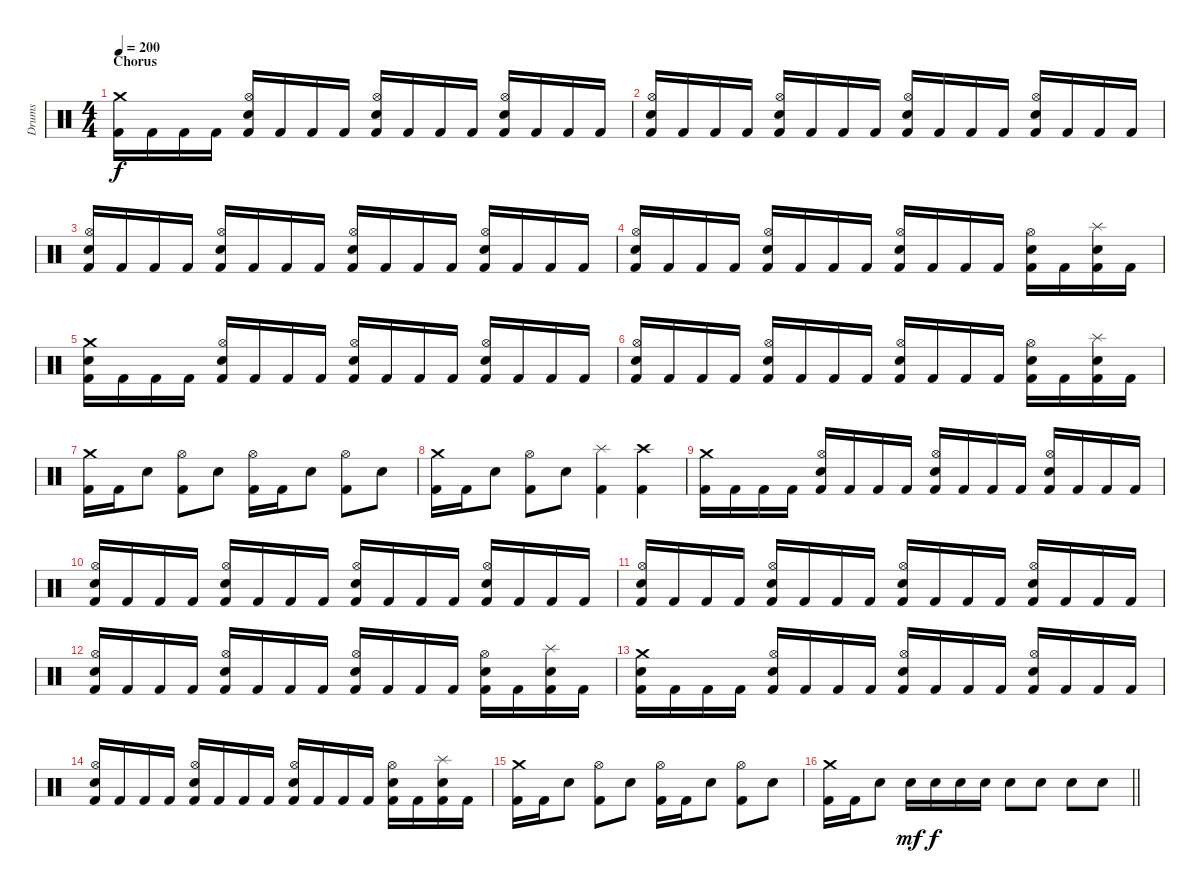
\track ("Drums" "Drums") {instrument percussion}
\staff {score}
\articulation defaults
\ts (4 4)
\section ("" "Chorus")
\tempo 200
\clef neutral
\ks c
("Crash medium (hit)" "Kick (hit) 2").16{dy f} "Kick (hit) 2".16 "Kick (hit) 2".16 "Kick (hit) 2".16 ("Hi-Hat (open)" "Electric Snare (hit)" "Kick (hit) 2").16 "Kick (hit) 2".16 "Kick (hit) 2".16 "Kick (hit) 2".16 ("Hi-Hat (open)" "Electric Snare (hit)" "Kick (hit) 2").16 "Kick (hit) 2".16 "Kick (hit) 2".16 "Kick (hit) 2".16 ("Hi-Hat (open)" "Electric Snare (hit)" "Kick (hit) 2").16 "Kick (hit) 2".16 "Kick (hit) 2".16 "Kick (hit) 2".16 |
("Hi-Hat (open)" "Electric Snare (hit)" "Kick (hit) 2").16 "Kick (hit) 2".16 "Kick (hit) 2".16 "Kick (hit) 2".16 ("Hi-Hat (open)" "Electric Snare (hit)" "Kick (hit) 2").16 "Kick (hit) 2".16 "Kick (hit) 2".16 "Kick (hit) 2".16 ("Hi-Hat (open)" "Electric Snare (hit)" "Kick (hit) 2").16 "Kick (hit) 2".16 "Kick (hit) 2".16 "Kick (hit) 2".16 ("Hi-Hat (open)" "Electric Snare (hit)" "Kick (hit) 2").16 "Kick (hit) 2".16 "Kick (hit) 2".16 "Kick (hit) 2".16 |
("Hi-Hat (open)" "Electric Snare (hit)" "Kick (hit) 2").16 "Kick (hit) 2".16 "Kick (hit) 2".16 "Kick (hit) 2".16 ("Hi-Hat (open)" "Electric Snare (hit)" "Kick (hit) 2").16 "Kick (hit) 2".16 "Kick (hit) 2".16 "Kick (hit) 2".16 ("Hi-Hat (open)" "Electric Snare (hit)" "Kick (hit) 2").16 "Kick (hit) 2".16 "Kick (hit) 2".16 "Kick (hit) 2".16 ("Hi-Hat (open)" "Electric Snare (hit)" "Kick (hit) 2").16 "Kick (hit) 2".16 "Kick (hit) 2".16 "Kick (hit) 2".16 |
("Hi-Hat (open)" "Electric Snare (hit)" "Kick (hit) 2").16 "Kick (hit) 2".16 "Kick (hit) 2".16 "Kick (hit) 2".16 ("Hi-Hat (open)" "Electric Snare (hit)" "Kick (hit) 2").16 "Kick (hit) 2".16 "Kick (hit) 2".16 "Kick (hit) 2".16 ("Hi-Hat (open)" "Electric Snare (hit)" "Kick (hit) 2").16 "Kick (hit) 2".16 "Kick (hit) 2".16 "Kick (hit) 2".16 ("Hi-Hat (open)" "Electric Snare (hit)" "Kick (hit) 2").16 "Kick (hit) 2".16 ("Splash (hit)" "Electric Snare (hit)" "Kick (hit) 2").16 "Kick (hit) 2".16 |
("Crash medium (hit)" "Electric Snare (hit)" "Kick (hit) 2").16 "Kick (hit) 2".16 "Kick (hit) 2".16 "Kick (hit) 2".16 ("Hi-Hat (open)" "Electric Snare (hit)" "Kick (hit) 2").16 "Kick (hit) 2".16 "Kick (hit) 2".16 "Kick (hit) 2".16 ("Hi-Hat (open)" "Electric Snare (hit)" "Kick (hit) 2").16 "Kick (hit) 2".16 "Kick (hit) 2".16 "Kick (hit) 2".16 ("Hi-Hat (open)" "Electric Snare (hit)" "Kick (hit) 2").16 "Kick (hit) 2".16 "Kick (hit) 2".16 "Kick (hit) 2".16 |
("Hi-Hat (open)" "Electric Snare (hit)" "Kick (hit) 2").16 "Kick (hit) 2".16 "Kick (hit) 2".16 "Kick (hit) 2".16 ("Hi-Hat (open)" "Electric Snare (hit)" "Kick (hit) 2").16 "Kick (hit) 2".16 "Kick (hit) 2".16 "Kick (hit) 2".16 ("Hi-Hat (open)" "Electric Snare (hit)" "Kick (hit) 2").16 "Kick (hit) 2".16 "Kick (hit) 2".16 "Kick (hit) 2".16 ("Hi-Hat (open)" "Electric Snare (hit)" "Kick (hit) 2").16 "Kick (hit) 2".16 ("Splash (hit)" "Electric Snare (hit)" "Kick (hit) 2").16 "Kick (hit) 2".16 |
("Crash medium (hit)" "Kick (hit) 2").16 "Kick (hit) 2".16 "Electric Snare (hit)".8 ("Hi-Hat (open)" "Kick (hit) 2").8 "Electric Snare (hit)".8 ("Hi-Hat (open)" "Kick (hit) 2").16 "Kick (hit) 2".16 "Electric Snare (hit)".8 ("Hi-Hat (open)" "Kick (hit) 2").8 "Electric Snare (hit)".8 |
("Crash medium (hit)" "Kick (hit) 2").16 "Kick (hit) 2".16 "Electric Snare (hit)".8 ("Hi-Hat (open)" "Kick (hit) 2").8 "Electric Snare (hit)".8 ("Splash (hit)" "Kick (hit) 2").4 ("Crash high (hit)" "Kick (hit) 2").4 |
("Crash medium (hit)" "Kick (hit) 2").16 "Kick (hit) 2".16 "Kick (hit) 2".16 "Kick (hit) 2".16 ("Hi-Hat (open)" "Electric Snare (hit)" "Kick (hit) 2").16 "Kick (hit) 2".16 "Kick (hit) 2".16 "Kick (hit) 2".16 ("Hi-Hat (open)" "Electric Snare (hit)" "Kick (hit) 2").16 "Kick (hit) 2".16 "Kick (hit) 2".16 "Kick (hit) 2".16 ("Hi-Hat (open)" "Electric Snare (hit)" "Kick (hit) 2").16 "Kick (hit) 2".16 "Kick (hit) 2".16 "Kick (hit) 2".16 |
("Hi-Hat (open)" "Electric Snare (hit)" "Kick (hit) 2").16 "Kick (hit) 2".16 "Kick (hit) 2".16 "Kick (hit) 2".16 ("Hi-Hat (open)" "Electric Snare (hit)" "Kick (hit) 2").16 "Kick (hit) 2".16 "Kick (hit) 2".16 "Kick (hit) 2".16 ("Hi-Hat (open)" "Electric Snare (hit)" "Kick (hit) 2").16 "Kick (hit) 2".16 "Kick (hit) 2".16 "Kick (hit) 2".16 ("Hi-Hat (open)" "Electric Snare (hit)" "Kick (hit) 2").16 "Kick (hit) 2".16 "Kick (hit) 2".16 "Kick (hit) 2".16 |
("Hi-Hat (open)" "Electric Snare (hit)" "Kick (hit) 2").16 "Kick (hit) 2".16 "Kick (hit) 2".16 "Kick (hit) 2".16 ("Hi-Hat (open)" "Electric Snare (hit)" "Kick (hit) 2").16 "Kick (hit) 2".16 "Kick (hit) 2".16 "Kick (hit) 2".16 ("Hi-Hat (open)" "Electric Snare (hit)" "Kick (hit) 2").16 "Kick (hit) 2".16 "Kick (hit) 2".16 "Kick (hit) 2".16 ("Hi-Hat (open)" "Electric Snare (hit)" "Kick (hit) 2").16 "Kick (hit) 2".16 "Kick (hit) 2".16 "Kick (hit) 2".16 |
("Hi-Hat (open)" "Electric Snare (hit)" "Kick (hit) 2").16 "Kick (hit) 2".16 "Kick (hit) 2".16 "Kick (hit) 2".16 ("Hi-Hat (open)" "Electric Snare (hit)" "Kick (hit) 2").16 "Kick (hit) 2".16 "Kick (hit) 2".16 "Kick (hit) 2".16 ("Hi-Hat (open)" "Electric Snare (hit)" "Kick (hit) 2").16 "Kick (hit) 2".16 "Kick (hit) 2".16 "Kick (hit) 2".16 ("Hi-Hat (open)" "Electric Snare (hit)" "Kick (hit) 2").16 "Kick (hit) 2".16 ("Splash (hit)" "Electric Snare (hit)" "Kick (hit) 2").16 "Kick (hit) 2".16 |
("Crash medium (hit)" "Electric Snare (hit)" "Kick (hit) 2").16 "Kick (hit) 2".16 "Kick (hit) 2".16 "Kick (hit) 2".16 ("Hi-Hat (open)" "Electric Snare (hit)" "Kick (hit) 2").16 "Kick (hit) 2".16 "Kick (hit) 2".16 "Kick (hit) 2".16 ("Hi-Hat (open)" "Electric Snare (hit)" "Kick (hit) 2").16 "Kick (hit) 2".16 "Kick (hit) 2".16 "Kick (hit) 2".16 ("Hi-Hat (open)" "Electric Snare (hit)" "Kick (hit) 2").16 "Kick (hit) 2".16 "Kick (hit) 2".16 "Kick (hit) 2".16 |
("Hi-Hat (open)" "Electric Snare (hit)" "Kick (hit) 2").16 "Kick (hit) 2".16 "Kick (hit) 2".16 "Kick (hit) 2".16 ("Hi-Hat (open)" "Electric Snare (hit)" "Kick (hit) 2").16 "Kick (hit) 2".16 "Kick (hit) 2".16 "Kick (hit) 2".16 ("Hi-Hat (open)" "Electric Snare (hit)" "Kick (hit) 2").16 "Kick (hit) 2".16 "Kick (hit) 2".16 "Kick (hit) 2".16 ("Hi-Hat (open)" "Electric Snare (hit)" "Kick (hit) 2").16 "Kick (hit) 2".16 ("Splash (hit)" "Electric Snare (hit)" "Kick (hit) 2").16 "Kick (hit) 2".16 |
("Crash medium (hit)" "Kick (hit) 2").16 "Kick (hit) 2".16 "Electric Snare (hit)".8 ("Hi-Hat (open)" "Kick (hit) 2").8 "Electric Snare (hit)".8 ("Hi-Hat (open)" "Kick (hit) 2").16 "Kick (hit) 2".16 "Electric Snare (hit)".8 ("Hi-Hat (open)" "Kick (hit) 2").8 "Electric Snare (hit)".8 |
\barLineRight lightlight
("Crash medium (hit)" "Kick (hit) 2").16 "Kick (hit) 2".16 "Electric Snare (hit)".8 "Electric Snare (hit)".16{dy mf} "Electric Snare (hit)".16{dy f} "Electric Snare (hit)".16 "Electric Snare (hit)".16 "Electric Snare (hit)".8 "Electric Snare (hit)".8 "Electric Snare (hit)".8 "Electric Snare (hit)".8
